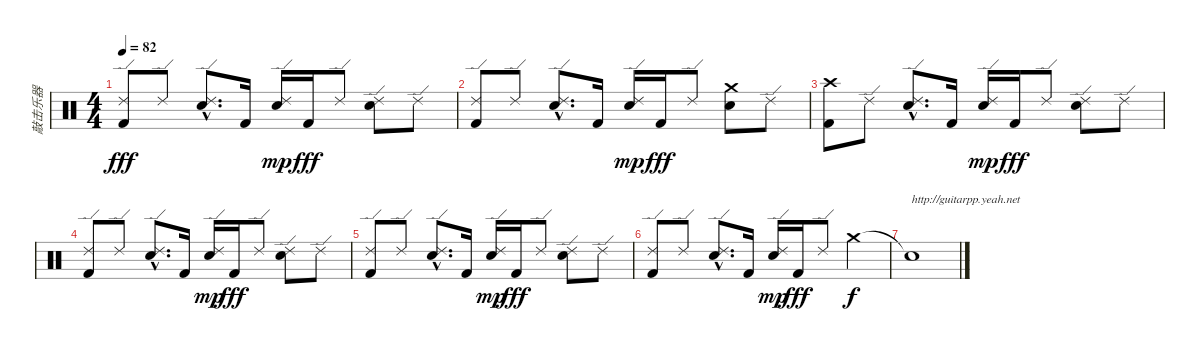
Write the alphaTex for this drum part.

\track ("敲击乐器" "敲击乐器") {instrument percussion}
\staff {score}
\articulation defaults
\ts (4 4)
\tempo 82
\clef neutral
\ks c
("Ride (edge) 2" "Kick (hit) 2").8{dy fff} "Ride (edge) 2".8 ("Ride (edge) 2"{hac} "Snare (hit) 2"{hac}).8{d} "Kick (hit) 2".16 ("Ride (edge) 2" "Snare (hit) 2").16{dy mp} "Kick (hit) 2".16{dy fff} "Ride (edge) 2".8 ("Ride (edge) 2" "Snare (hit) 2").8 "Ride (edge) 2".8 |
("Ride (edge) 2" "Kick (hit) 2").8 "Ride (edge) 2".8 ("Ride (edge) 2"{hac} "Snare (hit) 2"{hac}).8{d} "Kick (hit) 2".16 ("Ride (edge) 2" "Snare (hit) 2").16{dy mp} "Kick (hit) 2".16{dy fff} "Ride (edge) 2".8 ("Crash medium (hit)" "Snare (hit) 2").8 "Ride (edge) 2".8 |
("Crash high (hit)" "Kick (hit) 2").8 "Ride (edge) 2".8 ("Ride (edge) 2"{hac} "Snare (hit) 2"{hac}).8{d} "Kick (hit) 2".16 ("Ride (edge) 2" "Snare (hit) 2").16{dy mp} "Kick (hit) 2".16{dy fff} "Ride (edge) 2".8 ("Ride (edge) 2" "Snare (hit) 2").8 "Ride (edge) 2".8 |
("Ride (edge) 2" "Kick (hit) 2").8 "Ride (edge) 2".8 ("Ride (edge) 2"{hac} "Snare (hit) 2"{hac}).8{d} "Kick (hit) 2".16 ("Ride (edge) 2" "Snare (hit) 2").16{dy mp} "Kick (hit) 2".16{dy fff} "Ride (edge) 2".8 ("Ride (edge) 2" "Snare (hit) 2").8 "Ride (edge) 2".8 |
("Ride (edge) 2" "Kick (hit) 2").8 "Ride (edge) 2".8 ("Ride (edge) 2"{hac} "Snare (hit) 2"{hac}).8{d} "Kick (hit) 2".16 ("Ride (edge) 2" "Snare (hit) 2").16{dy mp} "Kick (hit) 2".16{dy fff} "Ride (edge) 2".8 ("Ride (edge) 2" "Snare (hit) 2").8 "Ride (edge) 2".8 |
("Ride (edge) 2" "Kick (hit) 2").8 "Ride (edge) 2".8 ("Ride (edge) 2"{hac} "Snare (hit) 2"{hac}).8{d} "Kick (hit) 2".16 ("Ride (edge) 2" "Snare (hit) 2").16{dy mp} "Kick (hit) 2".16{dy fff} "Ride (edge) 2".8 "Crash medium (hit)".4{dy f} |
"Snare (hit)"{t}.1{txt "http://guitarpp.yeah.net"}
